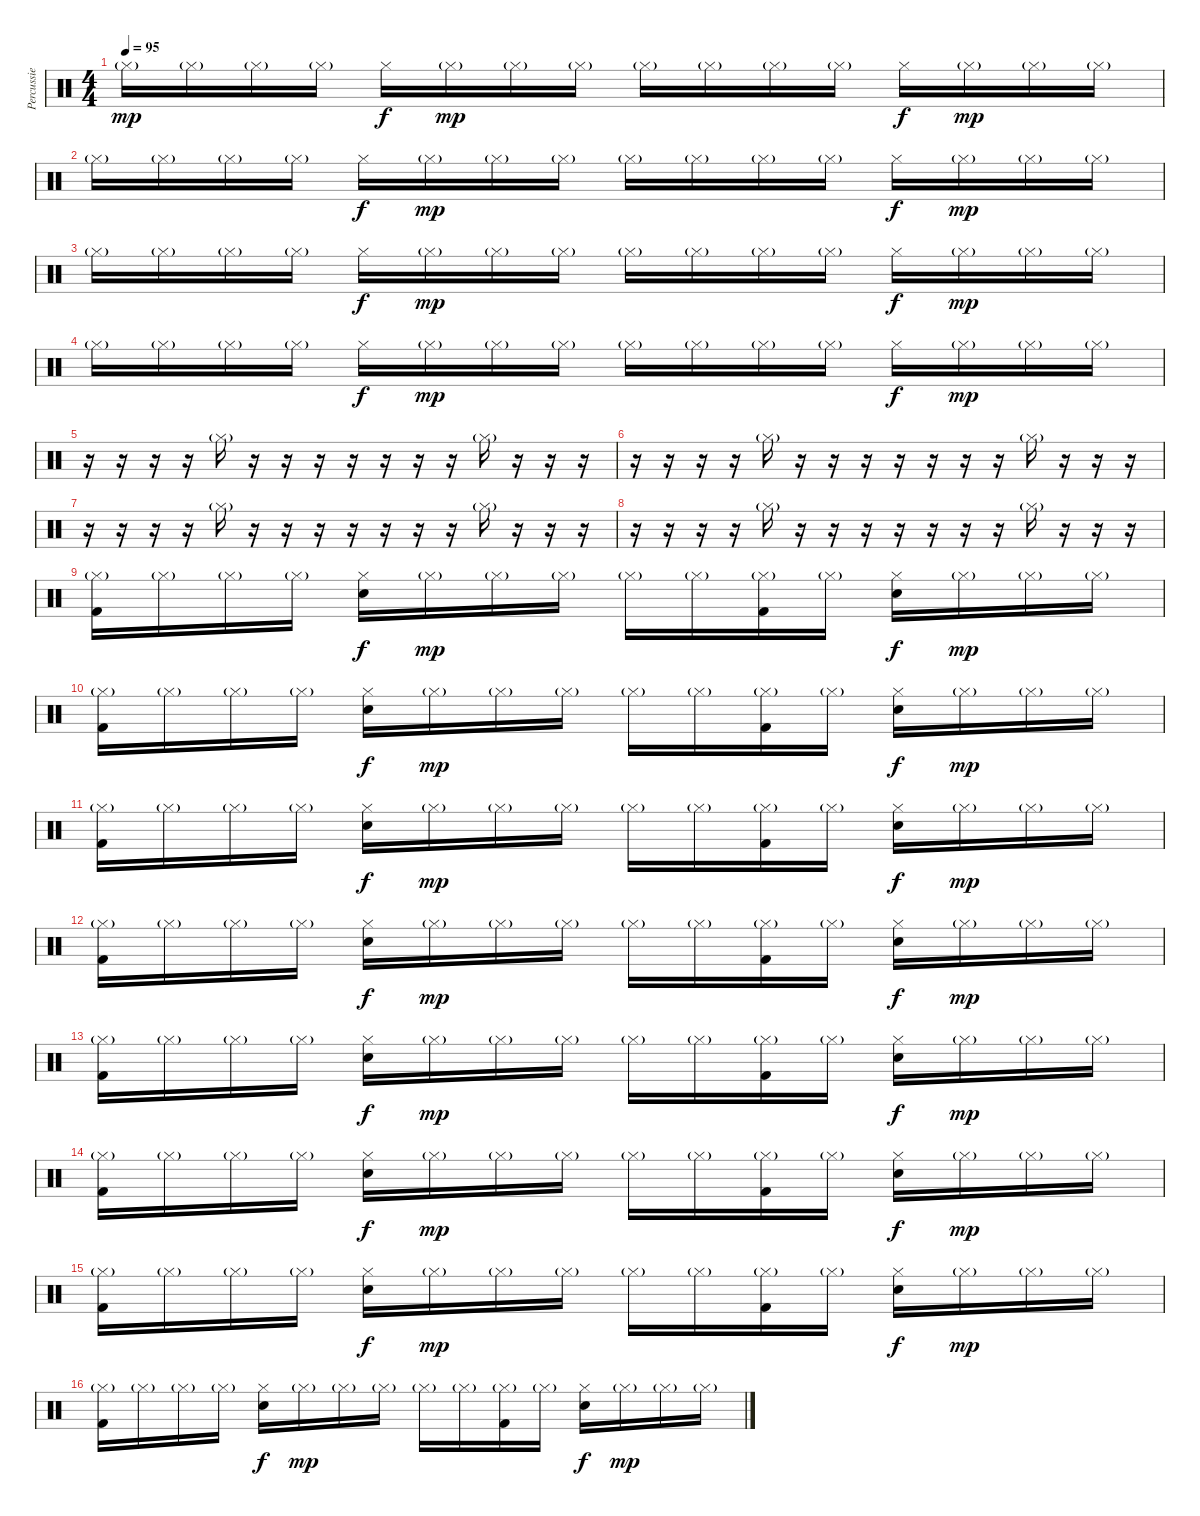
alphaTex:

\track ("Percussie" "Percussie") {instrument percussion}
\staff {score}
\articulation defaults
\ts (4 4)
\tempo 95
\clef neutral
\ks c "Hi-Hat (closed)"{g}.16{dy mp} "Hi-Hat (closed)"{g}.16 "Hi-Hat (closed)"{g}.16 "Hi-Hat (closed)"{g}.16 "Hi-Hat (closed)".16{dy f} "Hi-Hat (closed)"{g}.16{dy mp} "Hi-Hat (closed)"{g}.16 "Hi-Hat (closed)"{g}.16 "Hi-Hat (closed)"{g}.16 "Hi-Hat (closed)"{g}.16 "Hi-Hat (closed)"{g}.16 "Hi-Hat (closed)"{g}.16 "Hi-Hat (closed)".16{dy f} "Hi-Hat (closed)"{g}.16{dy mp} "Hi-Hat (closed)"{g}.16 "Hi-Hat (closed)"{g}.16
|
"Hi-Hat (closed)"{g}.16 "Hi-Hat (closed)"{g}.16 "Hi-Hat (closed)"{g}.16 "Hi-Hat (closed)"{g}.16 "Hi-Hat (closed)".16{dy f} "Hi-Hat (closed)"{g}.16{dy mp} "Hi-Hat (closed)"{g}.16 "Hi-Hat (closed)"{g}.16 "Hi-Hat (closed)"{g}.16 "Hi-Hat (closed)"{g}.16 "Hi-Hat (closed)"{g}.16 "Hi-Hat (closed)"{g}.16 "Hi-Hat (closed)".16{dy f} "Hi-Hat (closed)"{g}.16{dy mp} "Hi-Hat (closed)"{g}.16 "Hi-Hat (closed)"{g}.16 |
"Hi-Hat (closed)"{g}.16 "Hi-Hat (closed)"{g}.16 "Hi-Hat (closed)"{g}.16 "Hi-Hat (closed)"{g}.16 "Hi-Hat (closed)".16{dy f} "Hi-Hat (closed)"{g}.16{dy mp} "Hi-Hat (closed)"{g}.16 "Hi-Hat (closed)"{g}.16 "Hi-Hat (closed)"{g}.16 "Hi-Hat (closed)"{g}.16 "Hi-Hat (closed)"{g}.16 "Hi-Hat (closed)"{g}.16 "Hi-Hat (closed)".16{dy f} "Hi-Hat (closed)"{g}.16{dy mp} "Hi-Hat (closed)"{g}.16 "Hi-Hat (closed)"{g}.16 |
"Hi-Hat (closed)"{g}.16 "Hi-Hat (closed)"{g}.16 "Hi-Hat (closed)"{g}.16 "Hi-Hat (closed)"{g}.16 "Hi-Hat (closed)".16{dy f} "Hi-Hat (closed)"{g}.16{dy mp} "Hi-Hat (closed)"{g}.16 "Hi-Hat (closed)"{g}.16 "Hi-Hat (closed)"{g}.16 "Hi-Hat (closed)"{g}.16 "Hi-Hat (closed)"{g}.16 "Hi-Hat (closed)"{g}.16 "Hi-Hat (closed)".16{dy f} "Hi-Hat (closed)"{g}.16{dy mp} "Hi-Hat (closed)"{g}.16 "Hi-Hat (closed)"{g}.16 |
r.16 r.16 r.16 r.16 "Hi-Hat (closed)"{g}.16 r.16 r.16 r.16 r.16 r.16 r.16 r.16 "Hi-Hat (closed)"{g}.16 r.16 r.16 r.16 |
r.16 r.16 r.16 r.16 "Hi-Hat (closed)"{g}.16 r.16 r.16 r.16 r.16 r.16 r.16 r.16 "Hi-Hat (closed)"{g}.16 r.16 r.16 r.16 |
r.16 r.16 r.16 r.16 "Hi-Hat (closed)"{g}.16 r.16 r.16 r.16 r.16 r.16 r.16 r.16 "Hi-Hat (closed)"{g}.16 r.16 r.16 r.16 |
r.16 r.16 r.16 r.16 "Hi-Hat (closed)"{g}.16 r.16 r.16 r.16 r.16 r.16 r.16 r.16 "Hi-Hat (closed)"{g}.16 r.16 r.16 r.16 |
("Hi-Hat (closed)"{g} "Kick (hit) 2").16 "Hi-Hat (closed)"{g}.16 "Hi-Hat (closed)"{g}.16 "Hi-Hat (closed)"{g}.16 ("Hi-Hat (closed)" "Snare (hit) 2").16{dy f} "Hi-Hat (closed)"{g}.16{dy mp} "Hi-Hat (closed)"{g}.16 "Hi-Hat (closed)"{g}.16 "Hi-Hat (closed)"{g}.16 "Hi-Hat (closed)"{g}.16 ("Hi-Hat (closed)"{g} "Kick (hit) 2").16 "Hi-Hat (closed)"{g}.16 ("Hi-Hat (closed)" "Snare (hit) 2").16{dy f} "Hi-Hat (closed)"{g}.16{dy mp} "Hi-Hat (closed)"{g}.16 "Hi-Hat (closed)"{g}.16 |
("Hi-Hat (closed)"{g} "Kick (hit) 2").16 "Hi-Hat (closed)"{g}.16 "Hi-Hat (closed)"{g}.16 "Hi-Hat (closed)"{g}.16 ("Hi-Hat (closed)" "Snare (hit) 2").16{dy f} "Hi-Hat (closed)"{g}.16{dy mp} "Hi-Hat (closed)"{g}.16 "Hi-Hat (closed)"{g}.16 "Hi-Hat (closed)"{g}.16 "Hi-Hat (closed)"{g}.16 ("Hi-Hat (closed)"{g} "Kick (hit) 2").16 "Hi-Hat (closed)"{g}.16 ("Hi-Hat (closed)" "Snare (hit) 2").16{dy f} "Hi-Hat (closed)"{g}.16{dy mp} "Hi-Hat (closed)"{g}.16 "Hi-Hat (closed)"{g}.16 |
("Hi-Hat (closed)"{g} "Kick (hit) 2").16 "Hi-Hat (closed)"{g}.16 "Hi-Hat (closed)"{g}.16 "Hi-Hat (closed)"{g}.16 ("Hi-Hat (closed)" "Snare (hit) 2").16{dy f} "Hi-Hat (closed)"{g}.16{dy mp} "Hi-Hat (closed)"{g}.16 "Hi-Hat (closed)"{g}.16 "Hi-Hat (closed)"{g}.16 "Hi-Hat (closed)"{g}.16 ("Hi-Hat (closed)"{g} "Kick (hit) 2").16 "Hi-Hat (closed)"{g}.16 ("Hi-Hat (closed)" "Snare (hit) 2").16{dy f} "Hi-Hat (closed)"{g}.16{dy mp} "Hi-Hat (closed)"{g}.16 "Hi-Hat (closed)"{g}.16 |
("Hi-Hat (closed)"{g} "Kick (hit) 2").16 "Hi-Hat (closed)"{g}.16 "Hi-Hat (closed)"{g}.16 "Hi-Hat (closed)"{g}.16 ("Hi-Hat (closed)" "Snare (hit) 2").16{dy f} "Hi-Hat (closed)"{g}.16{dy mp} "Hi-Hat (closed)"{g}.16 "Hi-Hat (closed)"{g}.16 "Hi-Hat (closed)"{g}.16 "Hi-Hat (closed)"{g}.16 ("Hi-Hat (closed)"{g} "Kick (hit) 2").16 "Hi-Hat (closed)"{g}.16 ("Hi-Hat (closed)" "Snare (hit) 2").16{dy f} "Hi-Hat (closed)"{g}.16{dy mp} "Hi-Hat (closed)"{g}.16 "Hi-Hat (closed)"{g}.16 |
("Hi-Hat (closed)"{g} "Kick (hit) 2").16 "Hi-Hat (closed)"{g}.16 "Hi-Hat (closed)"{g}.16 "Hi-Hat (closed)"{g}.16 ("Hi-Hat (closed)" "Snare (hit) 2").16{dy f} "Hi-Hat (closed)"{g}.16{dy mp} "Hi-Hat (closed)"{g}.16 "Hi-Hat (closed)"{g}.16 "Hi-Hat (closed)"{g}.16 "Hi-Hat (closed)"{g}.16 ("Hi-Hat (closed)"{g} "Kick (hit) 2").16 "Hi-Hat (closed)"{g}.16 ("Hi-Hat (closed)" "Snare (hit) 2").16{dy f} "Hi-Hat (closed)"{g}.16{dy mp} "Hi-Hat (closed)"{g}.16 "Hi-Hat (closed)"{g}.16 |
("Hi-Hat (closed)"{g} "Kick (hit) 2").16 "Hi-Hat (closed)"{g}.16 "Hi-Hat (closed)"{g}.16 "Hi-Hat (closed)"{g}.16 ("Hi-Hat (closed)" "Snare (hit) 2").16{dy f} "Hi-Hat (closed)"{g}.16{dy mp} "Hi-Hat (closed)"{g}.16 "Hi-Hat (closed)"{g}.16 "Hi-Hat (closed)"{g}.16 "Hi-Hat (closed)"{g}.16 ("Hi-Hat (closed)"{g} "Kick (hit) 2").16 "Hi-Hat (closed)"{g}.16 ("Hi-Hat (closed)" "Snare (hit) 2").16{dy f} "Hi-Hat (closed)"{g}.16{dy mp} "Hi-Hat (closed)"{g}.16 "Hi-Hat (closed)"{g}.16 |
("Hi-Hat (closed)"{g} "Kick (hit) 2").16 "Hi-Hat (closed)"{g}.16 "Hi-Hat (closed)"{g}.16 "Hi-Hat (closed)"{g}.16 ("Hi-Hat (closed)" "Snare (hit) 2").16{dy f} "Hi-Hat (closed)"{g}.16{dy mp} "Hi-Hat (closed)"{g}.16 "Hi-Hat (closed)"{g}.16 "Hi-Hat (closed)"{g}.16 "Hi-Hat (closed)"{g}.16 ("Hi-Hat (closed)"{g} "Kick (hit) 2").16 "Hi-Hat (closed)"{g}.16 ("Hi-Hat (closed)" "Snare (hit) 2").16{dy f} "Hi-Hat (closed)"{g}.16{dy mp} "Hi-Hat (closed)"{g}.16 "Hi-Hat (closed)"{g}.16 |
("Hi-Hat (closed)"{g} "Kick (hit) 2").16 "Hi-Hat (closed)"{g}.16 "Hi-Hat (closed)"{g}.16 "Hi-Hat (closed)"{g}.16 ("Hi-Hat (closed)" "Snare (hit) 2").16{dy f} "Hi-Hat (closed)"{g}.16{dy mp} "Hi-Hat (closed)"{g}.16 "Hi-Hat (closed)"{g}.16 "Hi-Hat (closed)"{g}.16 "Hi-Hat (closed)"{g}.16 ("Hi-Hat (closed)"{g} "Kick (hit) 2").16 "Hi-Hat (closed)"{g}.16 ("Hi-Hat (closed)" "Snare (hit) 2").16{dy f} "Hi-Hat (closed)"{g}.16{dy mp} "Hi-Hat (closed)"{g}.16 "Hi-Hat (closed)"{g}.16
